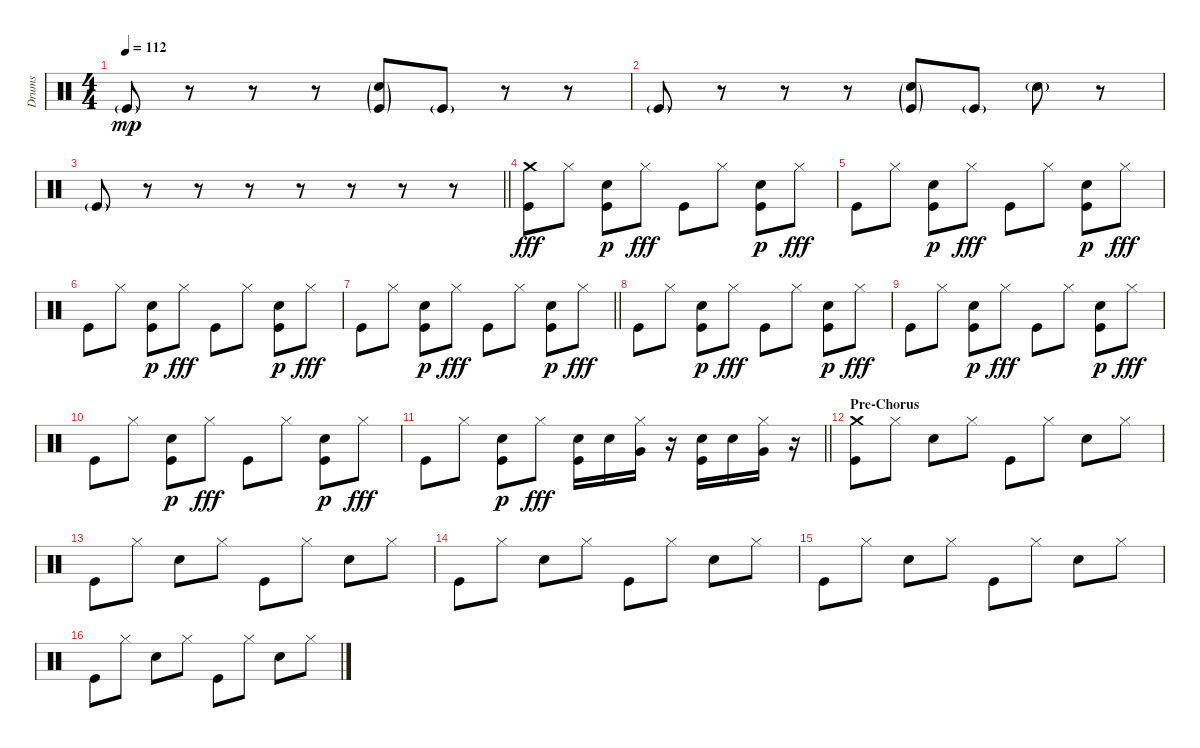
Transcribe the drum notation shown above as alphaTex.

\track ("Drums" "Drums") {instrument percussion}
\staff {score}
\articulation defaults
\ts (4 4)
\tempo 112
\clef neutral
\ks c "Kick (hit)"{g}.8{dy mp}
r.8 r.8 r.8 ("Snare (hit) 2"{g} "Kick (hit)"{g}).8 "Kick (hit)"{g}.8 r.8 r.8 |
"Kick (hit)"{g}.8 r.8 r.8 r.8 ("Snare (hit) 2"{g} "Kick (hit)"{g}).8 "Kick (hit)"{g}.8 "Snare (hit) 2"{g}.8 r.8 |
\barLineRight lightlight "Kick (hit)"{g}.8
r.8 r.8 r.8 r.8 r.8 r.8 r.8 |
("Crash medium (hit)" "Kick (hit)").8{dy fff} "Hi-Hat (closed)".8 ("Snare (hit) 2" "Kick (hit)").8{dy p} "Hi-Hat (closed)".8{dy fff} "Kick (hit)".8 "Hi-Hat (closed)".8 ("Snare (hit) 2" "Kick (hit)").8{dy p} "Hi-Hat (closed)".8{dy fff} |
"Kick (hit)".8 "Hi-Hat (closed)".8 ("Snare (hit) 2" "Kick (hit)").8{dy p} "Hi-Hat (closed)".8{dy fff} "Kick (hit)".8 "Hi-Hat (closed)".8 ("Snare (hit) 2" "Kick (hit)").8{dy p} "Hi-Hat (closed)".8{dy fff} |
"Kick (hit)".8 "Hi-Hat (closed)".8 ("Snare (hit) 2" "Kick (hit)").8{dy p} "Hi-Hat (closed)".8{dy fff} "Kick (hit)".8 "Hi-Hat (closed)".8 ("Snare (hit) 2" "Kick (hit)").8{dy p} "Hi-Hat (closed)".8{dy fff} |
\barLineRight lightlight "Kick (hit)".8 "Hi-Hat (closed)".8
("Snare (hit) 2" "Kick (hit)").8{dy p} "Hi-Hat (closed)".8{dy fff} "Kick (hit)".8 "Hi-Hat (closed)".8 ("Snare (hit) 2" "Kick (hit)").8{dy p} "Hi-Hat (closed)".8{dy fff} |
"Kick (hit)".8 "Hi-Hat (closed)".8 ("Snare (hit) 2" "Kick (hit)").8{dy p} "Hi-Hat (closed)".8{dy fff} "Kick (hit)".8 "Hi-Hat (closed)".8 ("Snare (hit) 2" "Kick (hit)").8{dy p} "Hi-Hat (closed)".8{dy fff} |
"Kick (hit)".8 "Hi-Hat (closed)".8 ("Snare (hit) 2" "Kick (hit)").8{dy p} "Hi-Hat (closed)".8{dy fff} "Kick (hit)".8 "Hi-Hat (closed)".8 ("Snare (hit) 2" "Kick (hit)").8{dy p} "Hi-Hat (closed)".8{dy fff} |
"Kick (hit)".8 "Hi-Hat (closed)".8 ("Snare (hit) 2" "Kick (hit)").8{dy p} "Hi-Hat (closed)".8{dy fff} "Kick (hit)".8 "Hi-Hat (closed)".8 ("Snare (hit) 2" "Kick (hit)").8{dy p} "Hi-Hat (closed)".8{dy fff} |
\barLineRight lightlight "Kick (hit)".8 "Hi-Hat (closed)".8
("Snare (hit) 2" "Kick (hit)").8{dy p} "Hi-Hat (closed)".8{dy fff} ("Snare (hit) 2" "Kick (hit)").16 "Snare (hit) 2".16 ("Hi-Hat (closed)" "Very Low Tom (hit)").16 r.16 ("Snare (hit) 2" "Kick (hit)").16 "Snare (hit) 2".16 ("Hi-Hat (closed)" "Very Low Tom (hit)").16 r.16 |
\section ("" "Pre-Chorus")
("Crash medium (hit)" "Kick (hit)").8 "Hi-Hat (closed)".8 "Snare (hit) 2".8 "Hi-Hat (closed)".8 "Kick (hit)".8 "Hi-Hat (closed)".8 "Snare (hit) 2".8 "Hi-Hat (closed)".8 |
"Kick (hit)".8 "Hi-Hat (closed)".8 "Snare (hit) 2".8 "Hi-Hat (closed)".8 "Kick (hit)".8 "Hi-Hat (closed)".8 "Snare (hit) 2".8 "Hi-Hat (closed)".8 |
"Kick (hit)".8 "Hi-Hat (closed)".8 "Snare (hit) 2".8 "Hi-Hat (closed)".8 "Kick (hit)".8 "Hi-Hat (closed)".8 "Snare (hit) 2".8 "Hi-Hat (closed)".8 |
"Kick (hit)".8 "Hi-Hat (closed)".8 "Snare (hit) 2".8 "Hi-Hat (closed)".8 "Kick (hit)".8 "Hi-Hat (closed)".8 "Snare (hit) 2".8 "Hi-Hat (closed)".8 |
"Kick (hit)".8 "Hi-Hat (closed)".8 "Snare (hit) 2".8 "Hi-Hat (closed)".8 "Kick (hit)".8 "Hi-Hat (closed)".8 "Snare (hit) 2".8 "Hi-Hat (closed)".8
